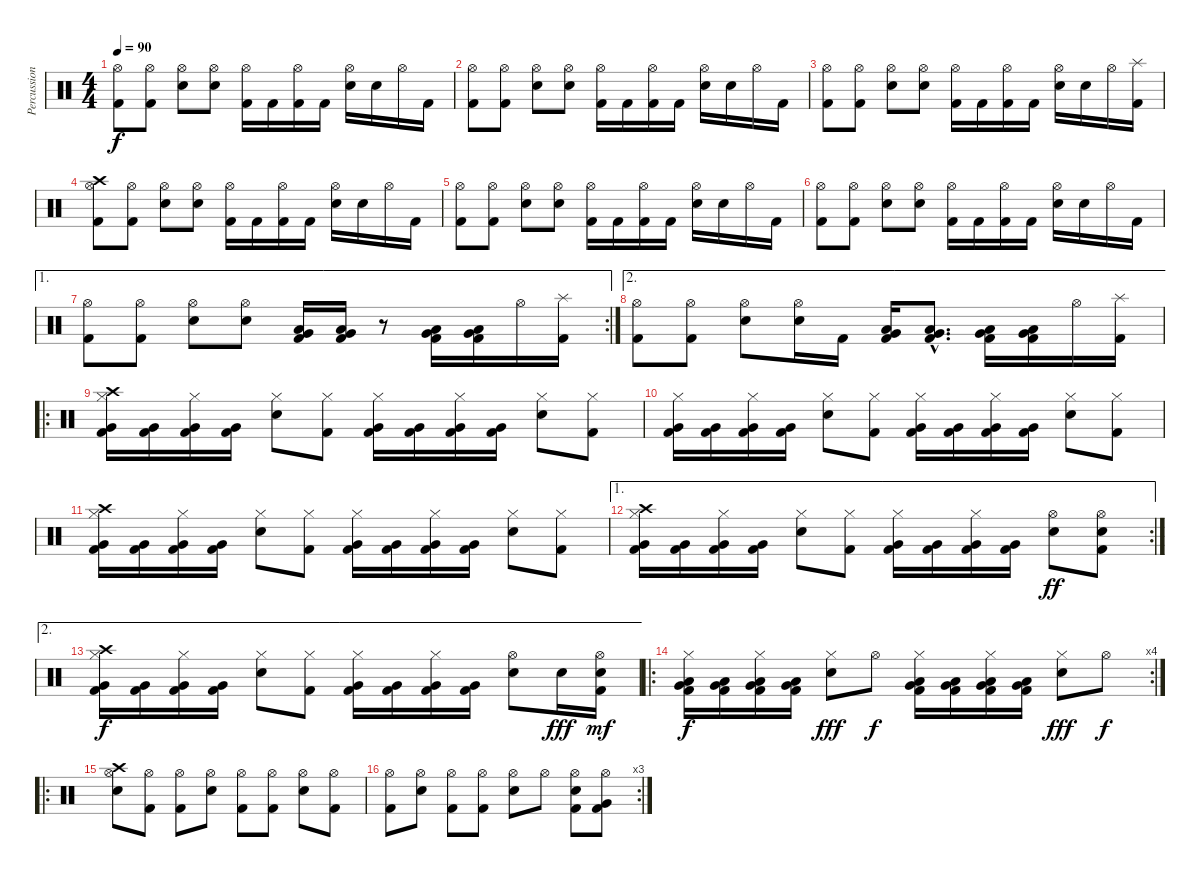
\track ("Percussion" "Percussion") {instrument percussion}
\staff {score}
\articulation defaults
\ts (4 4)
\tempo 90
\clef neutral
\ks c
("Hi-Hat (open)" "Kick (hit) 2").8{dy f} ("Hi-Hat (open)" "Kick (hit) 2").8 ("Hi-Hat (open)" "Electric Snare (hit)").8 ("Hi-Hat (open)" "Electric Snare (hit)").8 ("Hi-Hat (open)" "Kick (hit) 2").16 "Kick (hit) 2".16 ("Hi-Hat (open)" "Kick (hit) 2").16 "Kick (hit) 2".16 ("Hi-Hat (open)" "Electric Snare (hit)").16 "Electric Snare (hit)".16 "Hi-Hat (open)".16 "Kick (hit) 2".16 |
("Hi-Hat (open)" "Kick (hit) 2").8 ("Hi-Hat (open)" "Kick (hit) 2").8 ("Hi-Hat (open)" "Electric Snare (hit)").8 ("Hi-Hat (open)" "Electric Snare (hit)").8 ("Hi-Hat (open)" "Kick (hit) 2").16 "Kick (hit) 2".16 ("Hi-Hat (open)" "Kick (hit) 2").16 "Kick (hit) 2".16 ("Hi-Hat (open)" "Electric Snare (hit)").16 "Electric Snare (hit)".16 "Hi-Hat (open)".16 "Kick (hit) 2".16 |
("Hi-Hat (open)" "Kick (hit) 2").8 ("Hi-Hat (open)" "Kick (hit) 2").8 ("Hi-Hat (open)" "Electric Snare (hit)").8 ("Hi-Hat (open)" "Electric Snare (hit)").8 ("Hi-Hat (open)" "Kick (hit) 2").16 "Kick (hit) 2".16 ("Hi-Hat (open)" "Kick (hit) 2").16 "Kick (hit) 2".16 ("Hi-Hat (open)" "Electric Snare (hit)").16 "Electric Snare (hit)".16 "Hi-Hat (open)".16 ("Splash (hit)" "Kick (hit) 2").16 |
("Crash high (hit)" "Hi-Hat (open)" "Kick (hit) 2").8 ("Hi-Hat (open)" "Kick (hit) 2").8 ("Hi-Hat (open)" "Electric Snare (hit)").8 ("Hi-Hat (open)" "Electric Snare (hit)").8 ("Hi-Hat (open)" "Kick (hit) 2").16 "Kick (hit) 2".16 ("Hi-Hat (open)" "Kick (hit) 2").16 "Kick (hit) 2".16 ("Hi-Hat (open)" "Electric Snare (hit)").16 "Electric Snare (hit)".16 "Hi-Hat (open)".16 "Kick (hit) 2".16 |
("Hi-Hat (open)" "Kick (hit) 2").8 ("Hi-Hat (open)" "Kick (hit) 2").8 ("Hi-Hat (open)" "Electric Snare (hit)").8 ("Hi-Hat (open)" "Electric Snare (hit)").8 ("Hi-Hat (open)" "Kick (hit) 2").16 "Kick (hit) 2".16 ("Hi-Hat (open)" "Kick (hit) 2").16 "Kick (hit) 2".16 ("Hi-Hat (open)" "Electric Snare (hit)").16 "Electric Snare (hit)".16 "Hi-Hat (open)".16 "Kick (hit) 2".16 |
("Hi-Hat (open)" "Kick (hit) 2").8 ("Hi-Hat (open)" "Kick (hit) 2").8 ("Hi-Hat (open)" "Electric Snare (hit)").8 ("Hi-Hat (open)" "Electric Snare (hit)").8 ("Hi-Hat (open)" "Kick (hit) 2").16 "Kick (hit) 2".16 ("Hi-Hat (open)" "Kick (hit) 2").16 "Kick (hit) 2".16 ("Hi-Hat (open)" "Electric Snare (hit)").16 "Electric Snare (hit)".16 "Hi-Hat (open)".16 "Kick (hit) 2".16 |
\ae 1
\rc 2
("Hi-Hat (open)" "Kick (hit) 2").8 ("Hi-Hat (open)" "Kick (hit) 2").8 ("Hi-Hat (open)" "Electric Snare (hit)").8 ("Hi-Hat (open)" "Electric Snare (hit)").8 ("Very Low Tom (hit)" "Low Tom (hit)" "Kick (hit) 2").16 ("Very Low Tom (hit)" "Low Tom (hit)" "Kick (hit) 2").16 r.8 ("Low Floor Tom (hit)" "Very Low Tom (hit)" "Kick (hit) 2").16 ("Low Floor Tom (hit)" "Very Low Tom (hit)" "Kick (hit) 2").16 "Hi-Hat (open)".16 ("Splash (hit)" "Kick (hit) 2").16 |
\ae 2
("Hi-Hat (open)" "Kick (hit) 2").8 ("Hi-Hat (open)" "Kick (hit) 2").8 ("Hi-Hat (open)" "Electric Snare (hit)").8 ("Hi-Hat (open)" "Electric Snare (hit)").16 "Kick (hit) 2".16 ("Very Low Tom (hit)" "Low Tom (hit)" "Kick (hit) 2").16 ("Very Low Tom (hit)"{hac} "Low Tom (hit)"{hac} "Kick (hit) 2"{hac}).8{d} ("Low Floor Tom (hit)" "Very Low Tom (hit)" "Kick (hit) 2").16 ("Low Floor Tom (hit)" "Very Low Tom (hit)" "Kick (hit) 2").16 "Hi-Hat (open)".16 ("Splash (hit)" "Kick (hit) 2").16 |
\ro
("Crash high (hit)" "Hi-Hat (closed)" "Very Low Tom (hit)" "Kick (hit) 2").16 ("Very Low Tom (hit)" "Kick (hit) 2").16 ("Hi-Hat (closed)" "Very Low Tom (hit)" "Kick (hit) 2").16 ("Very Low Tom (hit)" "Kick (hit) 2").16 ("Hi-Hat (closed)" "Electric Snare (hit)").8 ("Hi-Hat (closed)" "Kick (hit) 2").8 ("Hi-Hat (closed)" "Very Low Tom (hit)" "Kick (hit) 2").16 ("Very Low Tom (hit)" "Kick (hit) 2").16 ("Hi-Hat (closed)" "Very Low Tom (hit)" "Kick (hit) 2").16 ("Very Low Tom (hit)" "Kick (hit) 2").16 ("Hi-Hat (closed)" "Electric Snare (hit)").8 ("Hi-Hat (closed)" "Kick (hit) 2").8 |
("Hi-Hat (closed)" "Very Low Tom (hit)" "Kick (hit) 2").16 ("Very Low Tom (hit)" "Kick (hit) 2").16 ("Hi-Hat (closed)" "Very Low Tom (hit)" "Kick (hit) 2").16 ("Very Low Tom (hit)" "Kick (hit) 2").16 ("Hi-Hat (closed)" "Electric Snare (hit)").8 ("Hi-Hat (closed)" "Kick (hit) 2").8 ("Hi-Hat (closed)" "Very Low Tom (hit)" "Kick (hit) 2").16 ("Very Low Tom (hit)" "Kick (hit) 2").16 ("Hi-Hat (closed)" "Very Low Tom (hit)" "Kick (hit) 2").16 ("Very Low Tom (hit)" "Kick (hit) 2").16 ("Hi-Hat (closed)" "Electric Snare (hit)").8 ("Hi-Hat (closed)" "Kick (hit) 2").8 |
("Crash high (hit)" "Hi-Hat (closed)" "Very Low Tom (hit)" "Kick (hit) 2").16 ("Very Low Tom (hit)" "Kick (hit) 2").16 ("Hi-Hat (closed)" "Very Low Tom (hit)" "Kick (hit) 2").16 ("Very Low Tom (hit)" "Kick (hit) 2").16 ("Hi-Hat (closed)" "Electric Snare (hit)").8 ("Hi-Hat (closed)" "Kick (hit) 2").8 ("Hi-Hat (closed)" "Very Low Tom (hit)" "Kick (hit) 2").16 ("Very Low Tom (hit)" "Kick (hit) 2").16 ("Hi-Hat (closed)" "Very Low Tom (hit)" "Kick (hit) 2").16 ("Very Low Tom (hit)" "Kick (hit) 2").16 ("Hi-Hat (closed)" "Electric Snare (hit)").8 ("Hi-Hat (closed)" "Kick (hit) 2").8 |
\ae 1
\rc 2
("Crash high (hit)" "Hi-Hat (closed)" "Very Low Tom (hit)" "Kick (hit) 2").16 ("Very Low Tom (hit)" "Kick (hit) 2").16 ("Hi-Hat (closed)" "Very Low Tom (hit)" "Kick (hit) 2").16 ("Very Low Tom (hit)" "Kick (hit) 2").16 ("Hi-Hat (closed)" "Electric Snare (hit)").8 ("Hi-Hat (closed)" "Kick (hit) 2").8 ("Hi-Hat (closed)" "Very Low Tom (hit)" "Kick (hit) 2").16 ("Very Low Tom (hit)" "Kick (hit) 2").16 ("Hi-Hat (closed)" "Very Low Tom (hit)" "Kick (hit) 2").16 ("Very Low Tom (hit)" "Kick (hit) 2").16 ("Hi-Hat (open)" "Electric Snare (hit)").8{dy ff} ("Hi-Hat (open)" "Electric Snare (hit)" "Kick (hit) 2").8 |
\ae 2
("Crash high (hit)" "Hi-Hat (closed)" "Very Low Tom (hit)" "Kick (hit) 2").16{dy f} ("Very Low Tom (hit)" "Kick (hit) 2").16 ("Hi-Hat (closed)" "Very Low Tom (hit)" "Kick (hit) 2").16 ("Very Low Tom (hit)" "Kick (hit) 2").16 ("Hi-Hat (closed)" "Electric Snare (hit)").8 ("Hi-Hat (closed)" "Kick (hit) 2").8 ("Hi-Hat (closed)" "Very Low Tom (hit)" "Kick (hit) 2").16 ("Very Low Tom (hit)" "Kick (hit) 2").16 ("Hi-Hat (closed)" "Very Low Tom (hit)" "Kick (hit) 2").16 ("Very Low Tom (hit)" "Kick (hit) 2").16 ("Hi-Hat (open)" "Electric Snare (hit)").8 "Electric Snare (hit)".16{dy fff} ("Hi-Hat (open)" "Electric Snare (hit)" "Kick (hit) 2").16{dy mf} |
\ro
\rc 4
("Hi-Hat (closed)" "Low Tom (hit)" "Very Low Tom (hit)" "Kick (hit) 2").16{dy f} ("Low Tom (hit)" "Very Low Tom (hit)" "Kick (hit) 2").16 ("Hi-Hat (closed)" "Very Low Tom (hit)" "Low Floor Tom (hit)" "Kick (hit) 2").16 ("Very Low Tom (hit)" "Low Floor Tom (hit)" "Kick (hit) 2").16 ("Hi-Hat (closed)" "Electric Snare (hit)").8{dy fff} "Hi-Hat (open)".8{dy f} ("Hi-Hat (closed)" "Low Tom (hit)" "Very Low Tom (hit)" "Kick (hit) 2").16 ("Low Tom (hit)" "Very Low Tom (hit)" "Kick (hit) 2").16 ("Hi-Hat (closed)" "Very Low Tom (hit)" "Low Floor Tom (hit)" "Kick (hit) 2").16 ("Very Low Tom (hit)" "Low Floor Tom (hit)" "Kick (hit) 2").16 ("Hi-Hat (closed)" "Electric Snare (hit)").8{dy fff} "Hi-Hat (open)".8{dy f} |
\ro
("Crash high (hit)" "Hi-Hat (open)" "Electric Snare (hit)").8 ("Hi-Hat (open)" "Kick (hit) 2").8 ("Hi-Hat (open)" "Kick (hit) 2").8 ("Hi-Hat (open)" "Electric Snare (hit)").8 ("Hi-Hat (open)" "Kick (hit) 2").8 ("Hi-Hat (open)" "Kick (hit) 2").8 ("Hi-Hat (open)" "Electric Snare (hit)").8 ("Hi-Hat (open)" "Kick (hit) 2").8 |
\rc 3
("Hi-Hat (open)" "Kick (hit) 2").8 ("Hi-Hat (open)" "Electric Snare (hit)").8 ("Hi-Hat (open)" "Kick (hit) 2").8 ("Hi-Hat (open)" "Kick (hit) 2").8 ("Hi-Hat (open)" "Electric Snare (hit)").8 "Hi-Hat (open)".8 ("Hi-Hat (open)" "Electric Snare (hit)" "Kick (hit) 2").8 ("Hi-Hat (open)" "Very Low Tom (hit)" "Kick (hit) 2").8
